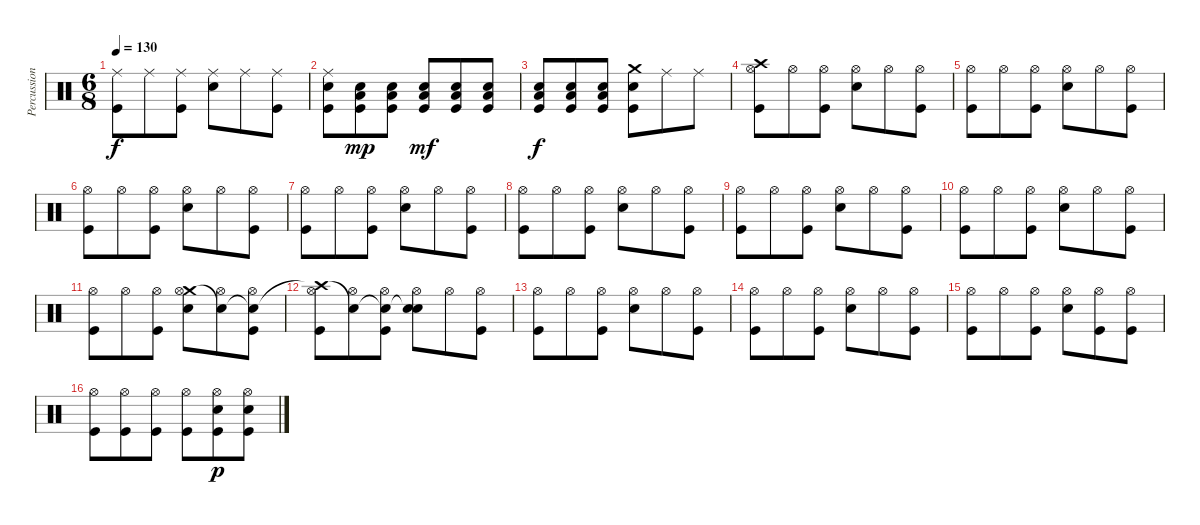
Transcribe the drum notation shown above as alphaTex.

\track ("Percussion" "Percussion") {instrument percussion}
\staff {score}
\articulation defaults
\ts (6 8)
\tempo 130
\clef neutral
\ks c
("Ride (middle)" "Kick (hit)").8{dy f} "Ride (middle)".8 ("Ride (middle)" "Kick (hit)").8 ("Ride (middle)" "Snare (hit) 2").8 "Ride (middle)".8 ("Ride (middle)" "Kick (hit)").8 |
("Snare (hit) 2" "Ride (middle)" "Kick (hit)").8 ("Snare (hit) 2" "Low Floor Tom (hit)" "Kick (hit)").8{dy mp} ("Snare (hit) 2" "Low Floor Tom (hit)" "Kick (hit)").8 ("Snare (hit) 2" "Low Floor Tom (hit)" "Kick (hit)").8{dy mf} ("Snare (hit) 2" "Low Floor Tom (hit)" "Kick (hit)").8 ("Snare (hit) 2" "Low Floor Tom (hit)" "Kick (hit)").8 |
("Snare (hit) 2" "Low Floor Tom (hit)" "Kick (hit)").8{dy f} ("Snare (hit) 2" "Low Floor Tom (hit)" "Kick (hit)").8 ("Snare (hit) 2" "Low Floor Tom (hit)" "Kick (hit)").8 ("Crash medium (hit)" "Snare (hit) 2" "Kick (hit)").8 "Ride (middle)".8 "Ride (middle)".8 |
("Crash high (hit)" "Hi-Hat (open)" "Kick (hit)").8 "Hi-Hat (open)".8 ("Hi-Hat (open)" "Kick (hit)").8 ("Hi-Hat (open)" "Snare (hit) 2").8 "Hi-Hat (open)".8 ("Hi-Hat (open)" "Kick (hit)").8 |
("Hi-Hat (open)" "Kick (hit)").8 "Hi-Hat (open)".8 ("Hi-Hat (open)" "Kick (hit)").8 ("Hi-Hat (open)" "Snare (hit) 2").8 "Hi-Hat (open)".8 ("Hi-Hat (open)" "Kick (hit)").8 |
("Hi-Hat (open)" "Kick (hit)").8 "Hi-Hat (open)".8 ("Hi-Hat (open)" "Kick (hit)").8 ("Hi-Hat (open)" "Snare (hit) 2").8 "Hi-Hat (open)".8 ("Hi-Hat (open)" "Kick (hit)").8 |
("Hi-Hat (open)" "Kick (hit)").8 "Hi-Hat (open)".8 ("Hi-Hat (open)" "Kick (hit)").8 ("Hi-Hat (open)" "Snare (hit) 2").8 "Hi-Hat (open)".8 ("Hi-Hat (open)" "Kick (hit)").8 |
("Hi-Hat (open)" "Kick (hit)").8 "Hi-Hat (open)".8 ("Hi-Hat (open)" "Kick (hit)").8 ("Hi-Hat (open)" "Snare (hit) 2").8 "Hi-Hat (open)".8 ("Hi-Hat (open)" "Kick (hit)").8 |
("Hi-Hat (open)" "Kick (hit)").8 "Hi-Hat (open)".8 ("Hi-Hat (open)" "Kick (hit)").8 ("Hi-Hat (open)" "Snare (hit) 2").8 "Hi-Hat (open)".8 ("Hi-Hat (open)" "Kick (hit)").8 |
("Hi-Hat (open)" "Kick (hit)").8 "Hi-Hat (open)".8 ("Hi-Hat (open)" "Kick (hit)").8 ("Hi-Hat (open)" "Snare (hit) 2").8 "Hi-Hat (open)".8 ("Hi-Hat (open)" "Kick (hit)").8 |
("Hi-Hat (open)" "Kick (hit)").8 "Hi-Hat (open)".8 ("Hi-Hat (open)" "Kick (hit)").8 ("Crash medium (hit)" "Hi-Hat (open)" "Snare (hit) 2").8 ("Snare (hit)"{t} "Hi-Hat (open)").8 ("Snare (hit)"{t} "Hi-Hat (open)" "Kick (hit)").8 |
("Crash high (hit)"{t} "Hi-Hat (open)" "Kick (hit)").8 ("Snare (hit)"{t} "Hi-Hat (open)").8 ("Snare (hit)"{t} "Hi-Hat (open)" "Kick (hit)").8 ("Snare (hit)"{t} "Hi-Hat (open)" "Snare (hit) 2").8 "Hi-Hat (open)".8 ("Hi-Hat (open)" "Kick (hit)").8 |
("Hi-Hat (open)" "Kick (hit)").8 "Hi-Hat (open)".8 ("Hi-Hat (open)" "Kick (hit)").8 ("Hi-Hat (open)" "Snare (hit) 2").8 "Hi-Hat (open)".8 ("Hi-Hat (open)" "Kick (hit)").8 |
("Hi-Hat (open)" "Kick (hit)").8 "Hi-Hat (open)".8 ("Hi-Hat (open)" "Kick (hit)").8 ("Hi-Hat (open)" "Snare (hit) 2").8 "Hi-Hat (open)".8 ("Hi-Hat (open)" "Kick (hit)").8 |
("Hi-Hat (open)" "Kick (hit)").8 "Hi-Hat (open)".8 ("Hi-Hat (open)" "Kick (hit)").8 ("Hi-Hat (open)" "Snare (hit) 2").8 ("Hi-Hat (open)" "Kick (hit)").8 ("Hi-Hat (open)" "Kick (hit)").8 |
("Hi-Hat (open)" "Kick (hit)").8 ("Hi-Hat (open)" "Kick (hit)").8 ("Hi-Hat (open)" "Kick (hit)").8 ("Hi-Hat (open)" "Kick (hit)").8 ("Hi-Hat (open)" "Snare (hit) 2" "Kick (hit)").8{dy p} ("Hi-Hat (open)" "Snare (hit) 2" "Kick (hit)").8
